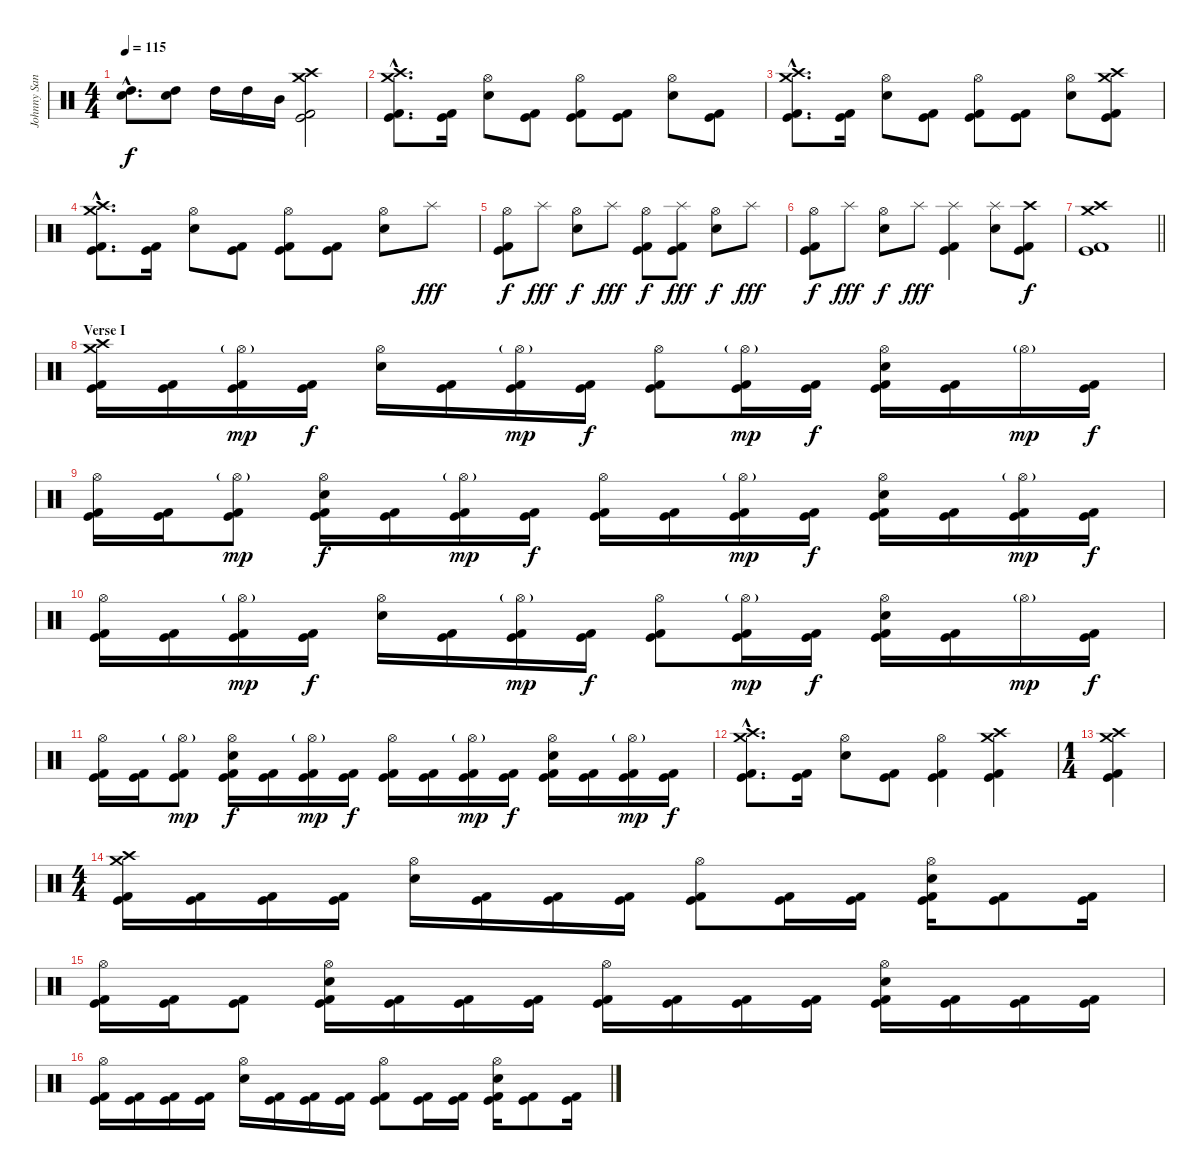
\track ("Johnny Sandin" "Johnny San") {instrument percussion}
\staff {score}
\articulation defaults
\ts (4 4)
\tempo 115
\clef neutral
\ks c
("High Tom (hit)"{hac} "Snare (hit) 2"{hac}).8{d dy f} ("High Tom (hit)" "Snare (hit) 2").8 "High Tom (hit)".16 "High Tom (hit)".16 "Mid Tom (hit)".16 ("Crash medium (hit)" "Crash high (hit)" "Kick (hit)" "Kick (hit) 2").2 |
("Crash medium (hit)"{hac} "Crash high (hit)"{hac} "Kick (hit) 2"{hac} "Kick (hit)"{hac}).8{d} ("Kick (hit) 2" "Kick (hit)").16 ("Hi-Hat (open)" "Snare (hit) 2").8 ("Kick (hit) 2" "Kick (hit)").8 ("Hi-Hat (open)" "Kick (hit) 2" "Kick (hit)").8 ("Kick (hit) 2" "Kick (hit)").8 ("Hi-Hat (open)" "Snare (hit) 2").8 ("Kick (hit) 2" "Kick (hit)").8 |
("Crash medium (hit)"{hac} "Crash high (hit)"{hac} "Kick (hit) 2"{hac} "Kick (hit)"{hac}).8{d} ("Kick (hit) 2" "Kick (hit)").16 ("Hi-Hat (open)" "Snare (hit) 2").8 ("Kick (hit) 2" "Kick (hit)").8 ("Hi-Hat (open)" "Kick (hit) 2" "Kick (hit)").8 ("Kick (hit) 2" "Kick (hit)").8 ("Hi-Hat (open)" "Snare (hit) 2").8 ("Crash medium (hit)" "Crash high (hit)" "Kick (hit) 2" "Kick (hit)").8 |
("Crash medium (hit)"{hac} "Crash high (hit)"{hac} "Kick (hit) 2"{hac} "Kick (hit)"{hac}).8{d} ("Kick (hit) 2" "Kick (hit)").16 ("Hi-Hat (open)" "Snare (hit) 2").8 ("Kick (hit) 2" "Kick (hit)").8 ("Hi-Hat (open)" "Kick (hit) 2" "Kick (hit)").8 ("Kick (hit) 2" "Kick (hit)").8 ("Hi-Hat (open)" "Snare (hit) 2").8 "Splash (hit)".8{dy fff} |
("Hi-Hat (open)" "Kick (hit) 2" "Kick (hit)").8{dy f} "Splash (hit)".8{dy fff} ("Hi-Hat (open)" "Snare (hit) 2").8{dy f} "Splash (hit)".8{dy fff} ("Hi-Hat (open)" "Kick (hit) 2" "Kick (hit)").8{dy f} ("Splash (hit)" "Kick (hit) 2" "Kick (hit)").8{dy fff} ("Hi-Hat (open)" "Snare (hit) 2").8{dy f} "Splash (hit)".8{dy fff} |
("Hi-Hat (open)" "Kick (hit) 2" "Kick (hit)").8{dy f} "Splash (hit)".8{dy fff} ("Hi-Hat (open)" "Snare (hit) 2").8{dy f} "Splash (hit)".8{dy fff} ("Splash (hit)" "Kick (hit) 2" "Kick (hit)").4 ("Splash (hit)" "Snare (hit) 2").8 ("Crash high (hit)" "Kick (hit) 2" "Kick (hit)").8{dy f} |
\barLineRight lightlight
("Crash medium (hit)" "Crash high (hit)" "Kick (hit) 2" "Kick (hit)").1 |
\section ("" "Verse I")
("Crash medium (hit)" "Crash high (hit)" "Kick (hit) 2" "Kick (hit)").16 ("Kick (hit) 2" "Kick (hit)").16 ("Hi-Hat (open)"{g} "Kick (hit) 2" "Kick (hit)").16{dy mp} ("Kick (hit) 2" "Kick (hit)").16{dy f} ("Hi-Hat (open)" "Snare (hit) 2").16 ("Kick (hit) 2" "Kick (hit)").16 ("Hi-Hat (open)"{g} "Kick (hit) 2" "Kick (hit)").16{dy mp} ("Kick (hit) 2" "Kick (hit)").16{dy f} ("Hi-Hat (open)" "Kick (hit) 2" "Kick (hit)").8 ("Hi-Hat (open)"{g} "Kick (hit) 2" "Kick (hit)").16{dy mp} ("Kick (hit) 2" "Kick (hit)").16{dy f} ("Hi-Hat (open)" "Snare (hit) 2" "Kick (hit) 2" "Kick (hit)").16 ("Kick (hit) 2" "Kick (hit)").16 "Hi-Hat (open)"{g}.16{dy mp} ("Kick (hit) 2" "Kick (hit)").16{dy f} |
("Hi-Hat (open)" "Kick (hit) 2" "Kick (hit)").16 ("Kick (hit) 2" "Kick (hit)").16 ("Hi-Hat (open)"{g} "Kick (hit) 2" "Kick (hit)").8{dy mp} ("Hi-Hat (open)" "Snare (hit) 2" "Kick (hit) 2" "Kick (hit)").16{dy f} ("Kick (hit) 2" "Kick (hit)").16 ("Hi-Hat (open)"{g} "Kick (hit) 2" "Kick (hit)").16{dy mp} ("Kick (hit) 2" "Kick (hit)").16{dy f} ("Hi-Hat (open)" "Kick (hit) 2" "Kick (hit)").16 ("Kick (hit) 2" "Kick (hit)").16 ("Hi-Hat (open)"{g} "Kick (hit) 2" "Kick (hit)").16{dy mp} ("Kick (hit) 2" "Kick (hit)").16{dy f} ("Hi-Hat (open)" "Snare (hit) 2" "Kick (hit) 2" "Kick (hit)").16 ("Kick (hit) 2" "Kick (hit)").16 ("Hi-Hat (open)"{g} "Kick (hit) 2" "Kick (hit)").16{dy mp} ("Kick (hit) 2" "Kick (hit)").16{dy f} |
("Hi-Hat (open)" "Kick (hit) 2" "Kick (hit)").16 ("Kick (hit) 2" "Kick (hit)").16 ("Hi-Hat (open)"{g} "Kick (hit) 2" "Kick (hit)").16{dy mp} ("Kick (hit) 2" "Kick (hit)").16{dy f} ("Hi-Hat (open)" "Snare (hit) 2").16 ("Kick (hit) 2" "Kick (hit)").16 ("Hi-Hat (open)"{g} "Kick (hit) 2" "Kick (hit)").16{dy mp} ("Kick (hit) 2" "Kick (hit)").16{dy f} ("Hi-Hat (open)" "Kick (hit) 2" "Kick (hit)").8 ("Hi-Hat (open)"{g} "Kick (hit) 2" "Kick (hit)").16{dy mp} ("Kick (hit) 2" "Kick (hit)").16{dy f} ("Hi-Hat (open)" "Snare (hit) 2" "Kick (hit) 2" "Kick (hit)").16 ("Kick (hit) 2" "Kick (hit)").16 "Hi-Hat (open)"{g}.16{dy mp} ("Kick (hit) 2" "Kick (hit)").16{dy f} |
("Hi-Hat (open)" "Kick (hit) 2" "Kick (hit)").16 ("Kick (hit) 2" "Kick (hit)").16 ("Hi-Hat (open)"{g} "Kick (hit) 2" "Kick (hit)").8{dy mp} ("Hi-Hat (open)" "Snare (hit) 2" "Kick (hit) 2" "Kick (hit)").16{dy f} ("Kick (hit) 2" "Kick (hit)").16 ("Hi-Hat (open)"{g} "Kick (hit) 2" "Kick (hit)").16{dy mp} ("Kick (hit) 2" "Kick (hit)").16{dy f} ("Hi-Hat (open)" "Kick (hit) 2" "Kick (hit)").16 ("Kick (hit) 2" "Kick (hit)").16 ("Hi-Hat (open)"{g} "Kick (hit) 2" "Kick (hit)").16{dy mp} ("Kick (hit) 2" "Kick (hit)").16{dy f} ("Hi-Hat (open)" "Snare (hit) 2" "Kick (hit) 2" "Kick (hit)").16 ("Kick (hit) 2" "Kick (hit)").16 ("Hi-Hat (open)"{g} "Kick (hit) 2" "Kick (hit)").16{dy mp} ("Kick (hit) 2" "Kick (hit)").16{dy f} |
("Crash medium (hit)"{hac} "Crash high (hit)"{hac} "Kick (hit) 2"{hac} "Kick (hit)"{hac}).8{d} ("Kick (hit) 2" "Kick (hit)").16 ("Hi-Hat (open)" "Snare (hit) 2").8 ("Kick (hit) 2" "Kick (hit)").8 ("Hi-Hat (open)" "Kick (hit) 2" "Kick (hit)").4 ("Crash medium (hit)" "Crash high (hit)" "Kick (hit) 2" "Kick (hit)").4 |
\ts (1 4)
("Crash medium (hit)" "Crash high (hit)" "Kick (hit) 2" "Kick (hit)").4 |
\ts (4 4)
("Crash medium (hit)" "Crash high (hit)" "Kick (hit) 2" "Kick (hit)").16 ("Kick (hit) 2" "Kick (hit)").16 ("Kick (hit) 2" "Kick (hit)").16 ("Kick (hit) 2" "Kick (hit)").16 ("Hi-Hat (open)" "Snare (hit) 2").16 ("Kick (hit) 2" "Kick (hit)").16 ("Kick (hit) 2" "Kick (hit)").16 ("Kick (hit) 2" "Kick (hit)").16 ("Hi-Hat (open)" "Kick (hit) 2" "Kick (hit)").8 ("Kick (hit) 2" "Kick (hit)").16 ("Kick (hit) 2" "Kick (hit)").16 ("Hi-Hat (open)" "Snare (hit) 2" "Kick (hit) 2" "Kick (hit)").16 ("Kick (hit) 2" "Kick (hit)").8 ("Kick (hit) 2" "Kick (hit)").16 |
("Hi-Hat (open)" "Kick (hit) 2" "Kick (hit)").16 ("Kick (hit) 2" "Kick (hit)").16 ("Kick (hit) 2" "Kick (hit)").8 ("Hi-Hat (open)" "Snare (hit) 2" "Kick (hit) 2" "Kick (hit)").16 ("Kick (hit) 2" "Kick (hit)").16 ("Kick (hit) 2" "Kick (hit)").16 ("Kick (hit) 2" "Kick (hit)").16 ("Hi-Hat (open)" "Kick (hit) 2" "Kick (hit)").16 ("Kick (hit) 2" "Kick (hit)").16 ("Kick (hit) 2" "Kick (hit)").16 ("Kick (hit) 2" "Kick (hit)").16 ("Hi-Hat (open)" "Snare (hit) 2" "Kick (hit) 2" "Kick (hit)").16 ("Kick (hit) 2" "Kick (hit)").16 ("Kick (hit) 2" "Kick (hit)").16 ("Kick (hit) 2" "Kick (hit)").16 |
("Hi-Hat (open)" "Kick (hit) 2" "Kick (hit)").16 ("Kick (hit) 2" "Kick (hit)").16 ("Kick (hit) 2" "Kick (hit)").16 ("Kick (hit) 2" "Kick (hit)").16 ("Hi-Hat (open)" "Snare (hit) 2").16 ("Kick (hit) 2" "Kick (hit)").16 ("Kick (hit) 2" "Kick (hit)").16 ("Kick (hit) 2" "Kick (hit)").16 ("Hi-Hat (open)" "Kick (hit) 2" "Kick (hit)").8 ("Kick (hit) 2" "Kick (hit)").16 ("Kick (hit) 2" "Kick (hit)").16 ("Hi-Hat (open)" "Snare (hit) 2" "Kick (hit) 2" "Kick (hit)").16 ("Kick (hit) 2" "Kick (hit)").8 ("Kick (hit) 2" "Kick (hit)").16
